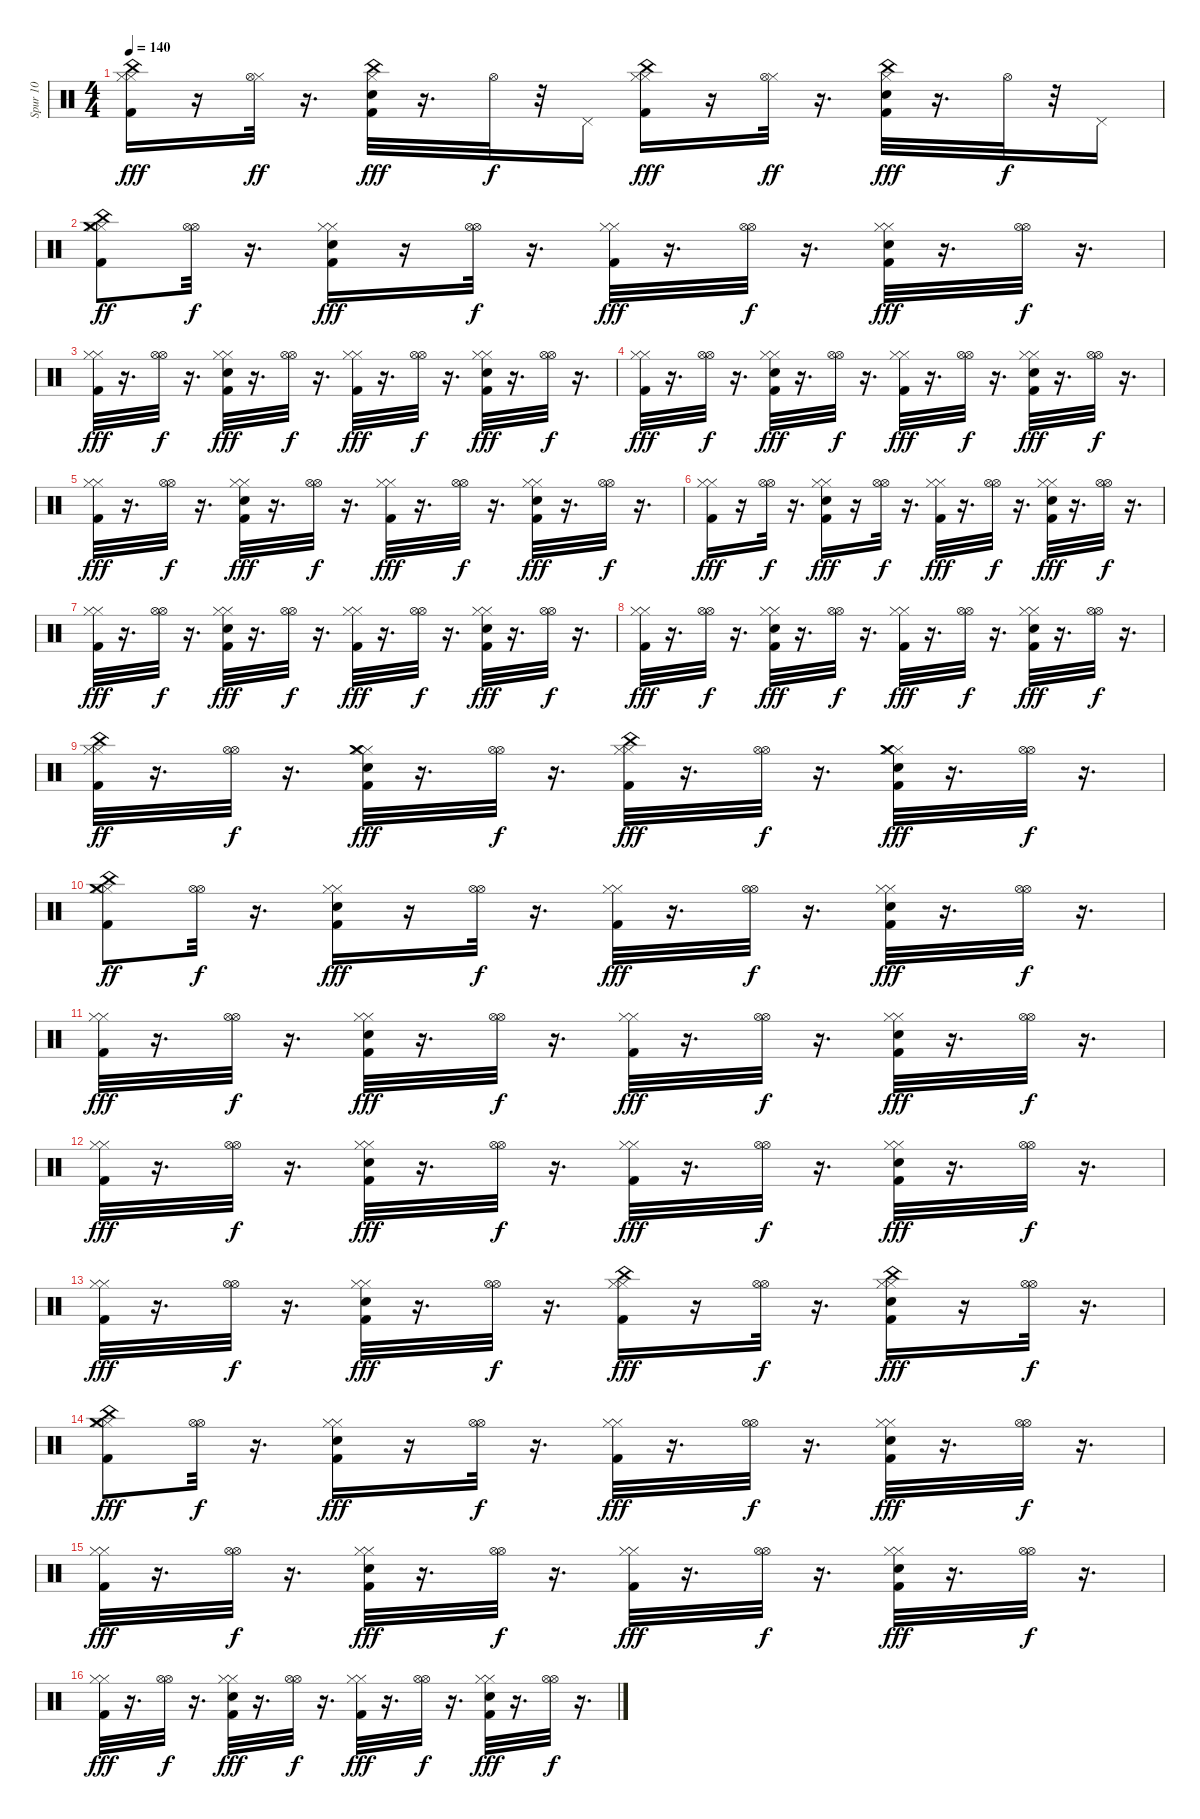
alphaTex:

\track ("Spur 10" "Spur 10") {instrument percussion}
\staff {score}
\articulation defaults
\ts (4 4)
\tempo 140
\clef neutral
\ks c
("Kick (hit) 2" "Hi-Hat (closed)" "China (hit)" "Hi-Hat (closed)").16{dy fff} r.16 ("Hi-Hat (closed)" "Hi-Hat (open)").32{dy ff} r.16{d} ("Kick (hit) 2" "China (hit)" "Hi-Hat (closed)" "Hand Clap (hit)").32{dy fff} r.16{d} "Hi-Hat (open)".32{dy f} r.32 "Pedal Hi-Hat (hit)".16 ("Kick (hit) 2" "Hi-Hat (closed)" "China (hit)" "Hi-Hat (closed)").16{dy fff} r.16 ("Hi-Hat (closed)" "Hi-Hat (open)").32{dy ff} r.16{d} ("Kick (hit) 2" "China (hit)" "Hi-Hat (closed)" "Hand Clap (hit)").32{dy fff} r.16{d} "Hi-Hat (open)".32{dy f} r.32 "Pedal Hi-Hat (hit)".16 |
("Kick (hit) 2" "Hi-Hat (closed)" "Crash medium (hit)" "China (hit)" "Hi-Hat (closed)").8{dy ff} ("Hi-Hat (open)" "Hi-Hat (open)").32{dy f} r.16{d} ("Kick (hit) 2" "Hi-Hat (closed)" "Hi-Hat (closed)" "Hand Clap (hit)").16{dy fff} r.16 ("Hi-Hat (open)" "Hi-Hat (open)").32{dy f} r.16{d} ("Kick (hit) 2" "Hi-Hat (closed)" "Hi-Hat (closed)").32{dy fff} r.16{d} ("Hi-Hat (open)" "Hi-Hat (open)").32{dy f} r.16{d} ("Kick (hit) 2" "Hi-Hat (closed)" "Hi-Hat (closed)" "Hand Clap (hit)").32{dy fff} r.16{d} ("Hi-Hat (open)" "Hi-Hat (open)").32{dy f} r.16{d} |
("Kick (hit) 2" "Hi-Hat (closed)" "Hi-Hat (closed)").32{dy fff} r.16{d} ("Hi-Hat (open)" "Hi-Hat (open)").32{dy f} r.16{d} ("Kick (hit) 2" "Hi-Hat (closed)" "Hi-Hat (closed)" "Hand Clap (hit)").32{dy fff} r.16{d} ("Hi-Hat (open)" "Hi-Hat (open)").32{dy f} r.16{d} ("Kick (hit) 2" "Hi-Hat (closed)" "Hi-Hat (closed)").32{dy fff} r.16{d} ("Hi-Hat (open)" "Hi-Hat (open)").32{dy f} r.16{d} ("Kick (hit) 2" "Hi-Hat (closed)" "Hi-Hat (closed)" "Hand Clap (hit)").32{dy fff} r.16{d} ("Hi-Hat (open)" "Hi-Hat (open)").32{dy f} r.16{d} |
("Kick (hit) 2" "Hi-Hat (closed)" "Hi-Hat (closed)").32{dy fff} r.16{d} ("Hi-Hat (open)" "Hi-Hat (open)").32{dy f} r.16{d} ("Kick (hit) 2" "Hi-Hat (closed)" "Hi-Hat (closed)" "Hand Clap (hit)").32{dy fff} r.16{d} ("Hi-Hat (open)" "Hi-Hat (open)").32{dy f} r.16{d} ("Kick (hit) 2" "Hi-Hat (closed)" "Hi-Hat (closed)").32{dy fff} r.16{d} ("Hi-Hat (open)" "Hi-Hat (open)").32{dy f} r.16{d} ("Kick (hit) 2" "Hi-Hat (closed)" "Hi-Hat (closed)" "Hand Clap (hit)").32{dy fff} r.16{d} ("Hi-Hat (open)" "Hi-Hat (open)").32{dy f} r.16{d} |
("Kick (hit) 2" "Hi-Hat (closed)" "Hi-Hat (closed)").32{dy fff} r.16{d} ("Hi-Hat (open)" "Hi-Hat (open)").32{dy f} r.16{d} ("Kick (hit) 2" "Hi-Hat (closed)" "Hi-Hat (closed)" "Hand Clap (hit)").32{dy fff} r.16{d} ("Hi-Hat (open)" "Hi-Hat (open)").32{dy f} r.16{d} ("Kick (hit) 2" "Hi-Hat (closed)" "Hi-Hat (closed)").32{dy fff} r.16{d} ("Hi-Hat (open)" "Hi-Hat (open)").32{dy f} r.16{d} ("Kick (hit) 2" "Hi-Hat (closed)" "Hi-Hat (closed)" "Hand Clap (hit)").32{dy fff} r.16{d} ("Hi-Hat (open)" "Hi-Hat (open)").32{dy f} r.16{d} |
("Kick (hit) 2" "Hi-Hat (closed)" "Hi-Hat (closed)").16{dy fff} r.16 ("Hi-Hat (open)" "Hi-Hat (open)").32{dy f} r.16{d} ("Kick (hit) 2" "Hi-Hat (closed)" "Hi-Hat (closed)" "Hand Clap (hit)").16{dy fff} r.16 ("Hi-Hat (open)" "Hi-Hat (open)").32{dy f} r.16{d} ("Kick (hit) 2" "Hi-Hat (closed)" "Hi-Hat (closed)").32{dy fff} r.16{d} ("Hi-Hat (open)" "Hi-Hat (open)").32{dy f} r.16{d} ("Kick (hit) 2" "Hi-Hat (closed)" "Hi-Hat (closed)" "Hand Clap (hit)").32{dy fff} r.16{d} ("Hi-Hat (open)" "Hi-Hat (open)").32{dy f} r.16{d} |
("Kick (hit) 2" "Hi-Hat (closed)" "Hi-Hat (closed)").32{dy fff} r.16{d} ("Hi-Hat (open)" "Hi-Hat (open)").32{dy f} r.16{d} ("Kick (hit) 2" "Hi-Hat (closed)" "Hi-Hat (closed)" "Hand Clap (hit)").32{dy fff} r.16{d} ("Hi-Hat (open)" "Hi-Hat (open)").32{dy f} r.16{d} ("Kick (hit) 2" "Hi-Hat (closed)" "Hi-Hat (closed)").32{dy fff} r.16{d} ("Hi-Hat (open)" "Hi-Hat (open)").32{dy f} r.16{d} ("Kick (hit) 2" "Hi-Hat (closed)" "Hi-Hat (closed)" "Hand Clap (hit)").32{dy fff} r.16{d} ("Hi-Hat (open)" "Hi-Hat (open)").32{dy f} r.16{d} |
("Kick (hit) 2" "Hi-Hat (closed)" "Hi-Hat (closed)").32{dy fff} r.16{d} ("Hi-Hat (open)" "Hi-Hat (open)").32{dy f} r.16{d} ("Kick (hit) 2" "Hi-Hat (closed)" "Hi-Hat (closed)" "Hand Clap (hit)").32{dy fff} r.16{d} ("Hi-Hat (open)" "Hi-Hat (open)").32{dy f} r.16{d} ("Kick (hit) 2" "Hi-Hat (closed)" "Hi-Hat (closed)").32{dy fff} r.16{d} ("Hi-Hat (open)" "Hi-Hat (open)").32{dy f} r.16{d} ("Kick (hit) 2" "Hi-Hat (closed)" "Hi-Hat (closed)" "Hand Clap (hit)").32{dy fff} r.16{d} ("Hi-Hat (open)" "Hi-Hat (open)").32{dy f} r.16{d} |
("Kick (hit) 2" "Hi-Hat (closed)" "China (hit)" "Hi-Hat (closed)").32{dy ff} r.16{d} ("Hi-Hat (open)" "Hi-Hat (open)").32{dy f} r.16{d} ("Kick (hit) 2" "Hi-Hat (closed)" "Crash medium (hit)" "Hi-Hat (closed)" "Hand Clap (hit)").32{dy fff} r.16{d} ("Hi-Hat (open)" "Hi-Hat (open)").32{dy f} r.16{d} ("Kick (hit) 2" "Hi-Hat (closed)" "China (hit)" "Hi-Hat (closed)").32{dy fff} r.16{d} ("Hi-Hat (open)" "Hi-Hat (open)").32{dy f} r.16{d} ("Kick (hit) 2" "Hi-Hat (closed)" "Crash medium (hit)" "Hi-Hat (closed)" "Hand Clap (hit)").32{dy fff} r.16{d} ("Hi-Hat (open)" "Hi-Hat (open)").32{dy f} r.16{d} |
("Kick (hit) 2" "Hi-Hat (closed)" "China (hit)" "Crash medium (hit)" "Hi-Hat (closed)").8{dy ff} ("Hi-Hat (open)" "Hi-Hat (open)").32{dy f} r.16{d} ("Kick (hit) 2" "Hi-Hat (closed)" "Hi-Hat (closed)" "Hand Clap (hit)").16{dy fff} r.16 ("Hi-Hat (open)" "Hi-Hat (open)").32{dy f} r.16{d} ("Kick (hit) 2" "Hi-Hat (closed)" "Hi-Hat (closed)").32{dy fff} r.16{d} ("Hi-Hat (open)" "Hi-Hat (open)").32{dy f} r.16{d} ("Kick (hit) 2" "Hi-Hat (closed)" "Hi-Hat (closed)" "Hand Clap (hit)").32{dy fff} r.16{d} ("Hi-Hat (open)" "Hi-Hat (open)").32{dy f} r.16{d} |
("Kick (hit) 2" "Hi-Hat (closed)" "Hi-Hat (closed)").32{dy fff} r.16{d} ("Hi-Hat (open)" "Hi-Hat (open)").32{dy f} r.16{d} ("Kick (hit) 2" "Hi-Hat (closed)" "Hi-Hat (closed)" "Hand Clap (hit)").32{dy fff} r.16{d} ("Hi-Hat (open)" "Hi-Hat (open)").32{dy f} r.16{d} ("Kick (hit) 2" "Hi-Hat (closed)" "Hi-Hat (closed)").32{dy fff} r.16{d} ("Hi-Hat (open)" "Hi-Hat (open)").32{dy f} r.16{d} ("Kick (hit) 2" "Hi-Hat (closed)" "Hi-Hat (closed)" "Hand Clap (hit)").32{dy fff} r.16{d} ("Hi-Hat (open)" "Hi-Hat (open)").32{dy f} r.16{d} |
("Kick (hit) 2" "Hi-Hat (closed)" "Hi-Hat (closed)").32{dy fff} r.16{d} ("Hi-Hat (open)" "Hi-Hat (open)").32{dy f} r.16{d} ("Kick (hit) 2" "Hi-Hat (closed)" "Hi-Hat (closed)" "Hand Clap (hit)").32{dy fff} r.16{d} ("Hi-Hat (open)" "Hi-Hat (open)").32{dy f} r.16{d} ("Kick (hit) 2" "Hi-Hat (closed)" "Hi-Hat (closed)").32{dy fff} r.16{d} ("Hi-Hat (open)" "Hi-Hat (open)").32{dy f} r.16{d} ("Kick (hit) 2" "Hi-Hat (closed)" "Hi-Hat (closed)" "Hand Clap (hit)").32{dy fff} r.16{d} ("Hi-Hat (open)" "Hi-Hat (open)").32{dy f} r.16{d} |
("Kick (hit) 2" "Hi-Hat (closed)" "Hi-Hat (closed)").32{dy fff} r.16{d} ("Hi-Hat (open)" "Hi-Hat (open)").32{dy f} r.16{d} ("Kick (hit) 2" "Hi-Hat (closed)" "Hi-Hat (closed)" "Hand Clap (hit)").32{dy fff} r.16{d} ("Hi-Hat (open)" "Hi-Hat (open)").32{dy f} r.16{d} ("Kick (hit) 2" "Hi-Hat (closed)" "China (hit)" "Hi-Hat (closed)").16{dy fff} r.16 ("Hi-Hat (open)" "Hi-Hat (open)").32{dy f} r.16{d} ("Kick (hit) 2" "Hi-Hat (closed)" "China (hit)" "Hi-Hat (closed)" "Hand Clap (hit)").16{dy fff} r.16 ("Hi-Hat (open)" "Hi-Hat (open)").32{dy f} r.16{d} |
("Kick (hit) 2" "Hi-Hat (closed)" "China (hit)" "Crash medium (hit)" "Hi-Hat (closed)").8{dy fff} ("Hi-Hat (open)" "Hi-Hat (open)").32{dy f} r.16{d} ("Kick (hit) 2" "Hi-Hat (closed)" "Hi-Hat (closed)" "Hand Clap (hit)").16{dy fff} r.16 ("Hi-Hat (open)" "Hi-Hat (open)").32{dy f} r.16{d} ("Kick (hit) 2" "Hi-Hat (closed)" "Hi-Hat (closed)").32{dy fff} r.16{d} ("Hi-Hat (open)" "Hi-Hat (open)").32{dy f} r.16{d} ("Kick (hit) 2" "Hi-Hat (closed)" "Hi-Hat (closed)" "Hand Clap (hit)").32{dy fff} r.16{d} ("Hi-Hat (open)" "Hi-Hat (open)").32{dy f} r.16{d} |
("Kick (hit) 2" "Hi-Hat (closed)" "Hi-Hat (closed)").32{dy fff} r.16{d} ("Hi-Hat (open)" "Hi-Hat (open)").32{dy f} r.16{d} ("Kick (hit) 2" "Hi-Hat (closed)" "Hi-Hat (closed)" "Hand Clap (hit)").32{dy fff} r.16{d} ("Hi-Hat (open)" "Hi-Hat (open)").32{dy f} r.16{d} ("Kick (hit) 2" "Hi-Hat (closed)" "Hi-Hat (closed)").32{dy fff} r.16{d} ("Hi-Hat (open)" "Hi-Hat (open)").32{dy f} r.16{d} ("Kick (hit) 2" "Hi-Hat (closed)" "Hi-Hat (closed)" "Hand Clap (hit)").32{dy fff} r.16{d} ("Hi-Hat (open)" "Hi-Hat (open)").32{dy f} r.16{d} |
("Kick (hit) 2" "Hi-Hat (closed)" "Hi-Hat (closed)").32{dy fff} r.16{d} ("Hi-Hat (open)" "Hi-Hat (open)").32{dy f} r.16{d} ("Kick (hit) 2" "Hi-Hat (closed)" "Hi-Hat (closed)" "Hand Clap (hit)").32{dy fff} r.16{d} ("Hi-Hat (open)" "Hi-Hat (open)").32{dy f} r.16{d} ("Kick (hit) 2" "Hi-Hat (closed)" "Hi-Hat (closed)").32{dy fff} r.16{d} ("Hi-Hat (open)" "Hi-Hat (open)").32{dy f} r.16{d} ("Kick (hit) 2" "Hi-Hat (closed)" "Hi-Hat (closed)" "Hand Clap (hit)").32{dy fff} r.16{d} ("Hi-Hat (open)" "Hi-Hat (open)").32{dy f} r.16{d}
